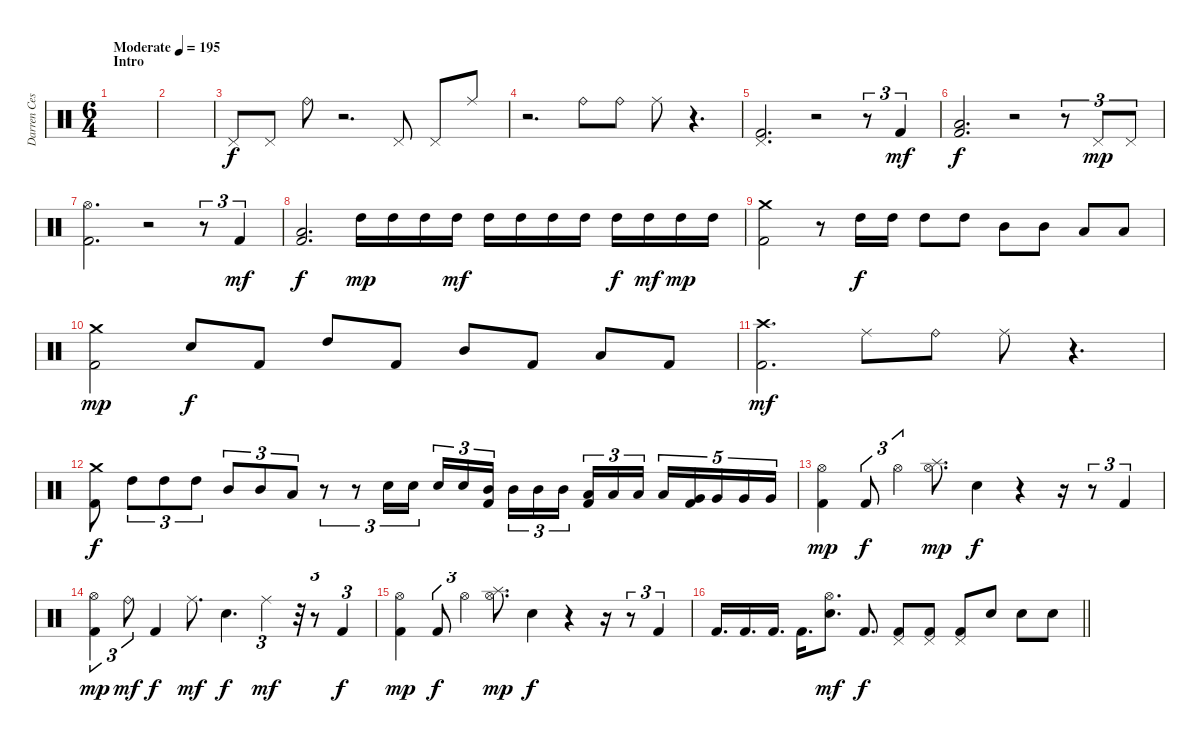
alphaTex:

\track ("Darren Cesca" "Darren Ces") {instrument percussion}
\staff {score}
\articulation defaults
\ts (6 4)
\section ("" "Intro")
\tempo (195 "Moderate")
\clef neutral
\ks c
|
|
"Pedal Hi-Hat (hit)".8 "Pedal Hi-Hat (hit)".8 "Ride (bell)".8 r.2{d} "Pedal Hi-Hat (hit)".8 "Pedal Hi-Hat (hit)".8 "Ride (middle)".8 |
r.2{d} "Ride (bell)".8 "Ride (bell)".8 "Ride (middle)".8 r.4{d} |
("Pedal Hi-Hat (hit)" "Kick (hit) 2").2{d dy f} r.2 r.8{tu (3 2)} "Kick (hit) 2".4{tu (3 2) dy mf} |
("Low Tom (hit)" "Kick (hit) 2").2{d dy f} r.2 r.8{tu (3 2)} "Pedal Hi-Hat (hit)".8{tu (3 2) dy mp} "Pedal Hi-Hat (hit)".8{tu (3 2)} |
("Hi-Hat (open)" "Kick (hit) 2").2{d} r.2 r.8{tu (3 2)} "Kick (hit) 2".4{tu (3 2) dy mf} |
("Low Tom (hit)" "Kick (hit) 2").2{d dy f} "High Tom (hit)".16{dy mp} "High Tom (hit)".16 "High Tom (hit)".16 "High Tom (hit)".16{dy mf} "High Tom (hit)".16 "High Tom (hit)".16 "High Tom (hit)".16 "High Tom (hit)".16 "High Tom (hit)".16{dy f} "High Tom (hit)".16{dy mf} "High Tom (hit)".16{dy mp} "High Tom (hit)".16 |
("Crash medium (hit)" "Kick (hit) 2").2 r.8 "High Tom (hit)".16{dy f} "High Tom (hit)".16 "High Tom (hit)".8 "High Tom (hit)".8 "Mid Tom (hit)".8 "Mid Tom (hit)".8 "Low Tom (hit)".8 "Low Tom (hit)".8 |
("Crash medium (hit)" "Kick (hit) 2").2{dy mp} "Electric Snare (hit)".8{dy f} "Kick (hit) 2".8 "High Tom (hit)".8 "Kick (hit) 2".8 "Mid Tom (hit)".8 "Kick (hit) 2".8 "Low Tom (hit)".8 "Kick (hit) 2".8 |
("Crash high (hit)" "Kick (hit) 2").2{d dy mf} "Ride (middle)".8 "Ride (bell)".8 "Ride (middle)".8 r.4{d} |
("Crash medium (hit)" "Kick (hit) 2").8{dy f} "High Tom (hit)".8{tu (3 2)} "High Tom (hit)".8{tu (3 2)} "High Tom (hit)".8{tu (3 2)} "Mid Tom (hit)".8{tu (3 2)} "Mid Tom (hit)".8{tu (3 2)} "Low Tom (hit)".8{tu (3 2)} r.8{tu (3 2)} r.8{tu (3 2)} "Electric Snare (hit)".16{tu (3 2)} "Electric Snare (hit)".16{tu (3 2) beam splitsecondary} "Electric Snare (hit)".16{tu (3 2)} "Electric Snare (hit)".16{tu (3 2)} ("Mid Tom (hit)" "Kick (hit) 2").16{tu (3 2) beam splitsecondary} "Mid Tom (hit)".16{tu (3 2)} "Mid Tom (hit)".16{tu (3 2)} "Mid Tom (hit)".16{tu (3 2) beam splitsecondary} ("Low Tom (hit)" "Kick (hit) 2").16{tu (3 2)} "Low Tom (hit)".16{tu (3 2)} "Low Tom (hit)".16{tu (3 2) beam splitsecondary} "Low Tom (hit)".16{tu (5 4)} ("Very Low Tom (hit)" "Kick (hit) 2").16{tu (5 4)} "Very Low Tom (hit)".16{tu (5 4)} "Very Low Tom (hit)".16{tu (5 4)} "Very Low Tom (hit)".16{tu (5 4)} |
("Hi-Hat (open)" "Kick (hit) 2").4{dy mp} "Kick (hit) 2".8{tu (3 2) dy f} "Hi-Hat (open)".4{tu (3 2)} ("Hi-Hat (open)" "Splash (hit)").8{d dy mp} "Electric Snare (hit)".4{dy f} r.4 r.16 r.8{tu (3 2)} "Kick (hit) 2".4{tu (3 2)} |
("Hi-Hat (open)" "Kick (hit) 2").4{tu (3 2) dy mp} "Ride (bell)".8{tu (3 2) dy mf} "Kick (hit) 2".4{dy f} "Ride (middle)".8{d dy mf} "Electric Snare (hit)".4{d dy f} "Ride (middle)".4{tu (3 2) dy mf} r.32{tu (3 2)} r.8{tu (3 2)} "Kick (hit) 2".4{tu (3 2) dy f} |
("Hi-Hat (open)" "Kick (hit) 2").4{dy mp} "Kick (hit) 2".8{tu (3 2) dy f} "Hi-Hat (open)".4{tu (3 2)} ("Hi-Hat (open)" "Splash (hit)").8{d dy mp} "Electric Snare (hit)".4{dy f} r.4 r.16 r.8{tu (3 2)} "Kick (hit) 2".4{tu (3 2)} |
\barLineRight lightlight "Kick (hit) 2".16{d} "Kick (hit) 2".16{d} "Kick (hit) 2".16{d} "Kick (hit) 2".16{d}
("Hi-Hat (open)" "Electric Snare (hit)").8{d dy mf} "Kick (hit) 2".8{d dy f} ("Pedal Hi-Hat (hit)" "Kick (hit) 2").8 ("Pedal Hi-Hat (hit)" "Kick (hit) 2").8 ("Pedal Hi-Hat (hit)" "Kick (hit) 2").8 "Electric Snare (hit)".8 "Electric Snare (hit)".8 "Electric Snare (hit)".8
